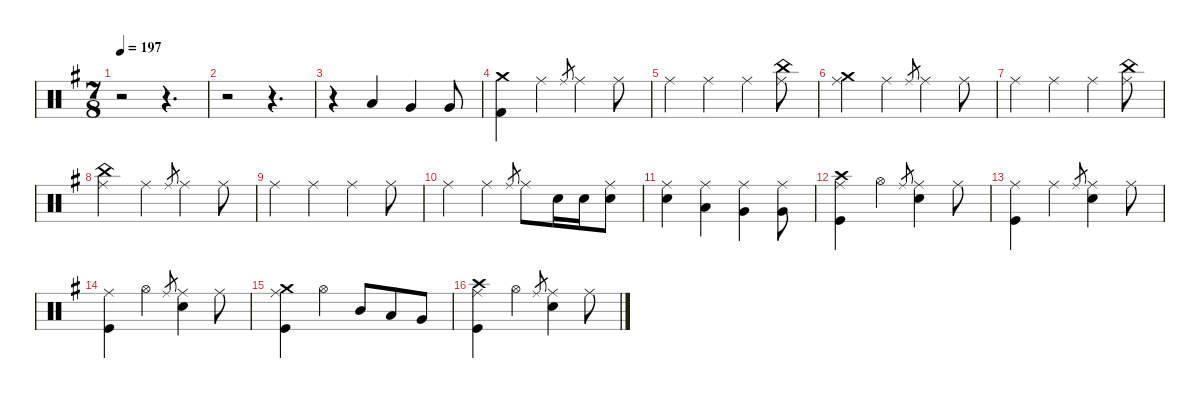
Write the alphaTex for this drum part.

\defaultSystemsLayout 4
\hideDynamics
\bracketExtendMode nobrackets
\singleTrackTrackNamePolicy hidden
\multiTrackTrackNamePolicy hidden
\firstSystemTrackNameMode fullname
\firstSystemTrackNameOrientation horizontal
\otherSystemsTrackNameOrientation horizontal
\track ("Drums" "drm.") {defaultSystemsLayout 4 instrument percussion}
\staff {score}
\articulation defaults
\ts (7 8)
\tempo 197
\clef neutral
\ks eminor
r.2{dy f beam Down} r.4{d beam Down} |
r.2{beam Down} r.4{d beam Down} |
r.4{beam Down} "Low Tom (hit)"{acc forcenatural}.4{beam Up} "Very Low Tom (hit)"{acc forcenatural}.4{beam Up} "Very Low Tom (hit)"{acc forcenatural}.8{beam Up} |
("Crash medium (hit)"{acc forcenatural} "Kick (hit) 2"{acc forcenatural}).4{dy mf beam Down} "Ride (middle)"{acc forcenatural}.4{dy f beam Down} "Ride (middle)"{acc forcenatural}.8{gr dy mf beam Up} "Ride (middle)"{acc forcenatural}.4{dy f beam Down} "Ride (middle)"{acc forcenatural}.8{beam Down} |
"Ride (middle)"{acc forcenatural}.4{beam Down} "Ride (middle)"{acc forcenatural}.4{beam Down} "Ride (middle)"{acc forcenatural}.4{beam Down} ("China (hit)"{acc forcenatural} "Ride (middle)"{acc forcenatural}).8{dy mp beam Down} |
("Crash medium (hit)"{acc forcenatural} "Ride (middle)"{acc forcenatural}).4{beam Down} "Ride (middle)"{acc forcenatural}.4{dy f beam Down} "Ride (middle)"{acc forcenatural}.8{gr dy mf beam Up} "Ride (middle)"{acc forcenatural}.4{dy f beam Down} "Ride (middle)"{acc forcenatural}.8{beam Down} |
"Ride (middle)"{acc forcenatural}.4{beam Down} "Ride (middle)"{acc forcenatural}.4{beam Down} "Ride (middle)"{acc forcenatural}.4{beam Down} ("China (hit)"{acc forcenatural} "Ride (middle)"{acc forcenatural}).8{dy p beam Down} |
("China (hit)"{acc forcenatural} "Ride (middle)"{acc forcenatural}).4{dy mp beam Down} "Ride (middle)"{acc forcenatural}.4{dy f beam Down} "Ride (middle)"{acc forcenatural}.8{gr dy mf beam Up} "Ride (middle)"{acc forcenatural}.4{dy f beam Down} "Ride (middle)"{acc forcenatural}.8{beam Down} |
"Ride (middle)"{acc forcenatural}.4{beam Down} "Ride (middle)"{acc forcenatural}.4{beam Down} "Ride (middle)"{acc forcenatural}.4{beam Down} "Ride (middle)"{acc forcenatural}.8{beam Down} |
"Ride (middle)"{acc forcenatural}.4{beam Down} "Ride (middle)"{acc forcenatural}.4{beam Down} "Ride (middle)"{acc forcenatural}.8{gr dy mf beam Up} "Ride (middle)"{acc forcenatural}.8{dy f beam Down} "Snare (hit) 2"{acc forcenatural}.16{dy mp beam Down} "Snare (hit) 2"{acc forcenatural}.16{beam Down} ("Ride (middle)"{acc forcenatural} "Snare (hit) 2"{acc forcenatural}).8{dy f beam Down} |
("Ride (middle)"{acc forcenatural} "Snare (hit) 2"{acc forcenatural}).4{beam Down} ("Ride (middle)"{acc forcenatural} "Low Tom (hit)"{acc forcenatural}).4{beam Down} ("Ride (middle)"{acc forcenatural} "Very Low Tom (hit)"{acc forcenatural}).4{beam Down} ("Ride (middle)"{acc forcenatural} "Very Low Tom (hit)"{acc forcenatural}).8{beam Down} |
("Crash high (hit)"{acc forcenatural} "Ride (middle)"{acc forcenatural} "Kick (hit)"{acc forcenatural}).4{dy mf beam Down} "Hi-Hat (open)"{acc forcenatural}.4{dy f beam Down} "Ride (middle)"{acc forcenatural}.8{gr dy mf beam Up} ("Ride (middle)"{acc forcenatural} "Snare (hit) 2"{acc forcenatural}).4{dy f beam Down} "Ride (middle)"{acc forcenatural}.8{beam Down} |
("Ride (middle)"{acc forcenatural} "Kick (hit)"{acc forcenatural}).4{beam Down} "Ride (middle)"{acc forcenatural}.4{beam Down} "Ride (middle)"{acc forcenatural}.8{gr dy mf beam Up} ("Ride (middle)"{acc forcenatural} "Snare (hit) 2"{acc forcenatural}).4{dy f beam Down} "Ride (middle)"{acc forcenatural}.8{beam Down} |
("Ride (middle)"{acc forcenatural} "Kick (hit)"{acc forcenatural}).4{beam Down} "Hi-Hat (open)"{acc forcenatural}.4{beam Down} "Ride (middle)"{acc forcenatural}.8{gr dy mf beam Up} ("Ride (middle)"{acc forcenatural} "Snare (hit) 2"{acc forcenatural}).4{dy f beam Down} "Ride (middle)"{acc forcenatural}.8{beam Down} |
("Crash medium (hit)"{acc forcenatural} "Ride (middle)"{acc forcenatural} "Kick (hit)"{acc forcenatural}).4{dy mp beam Down} "Hi-Hat (open)"{acc forcenatural}.4{dy f beam Down} "Mid Tom (hit)"{acc forcenatural}.8{beam Up} "Low Tom (hit)"{acc forcenatural}.8{beam Up} "Very Low Tom (hit)"{acc forcenatural}.8{beam Up} |
("Crash high (hit)"{acc forcenatural} "Ride (middle)"{acc forcenatural} "Kick (hit)"{acc forcenatural}).4{dy mf beam Down} "Hi-Hat (open)"{acc forcenatural}.4{dy f beam Down} "Ride (middle)"{acc forcenatural}.8{gr dy mf beam Up} ("Ride (middle)"{acc forcenatural} "Snare (hit) 2"{acc forcenatural}).4{dy f beam Down} "Ride (middle)"{acc forcenatural}.8{beam Down}
